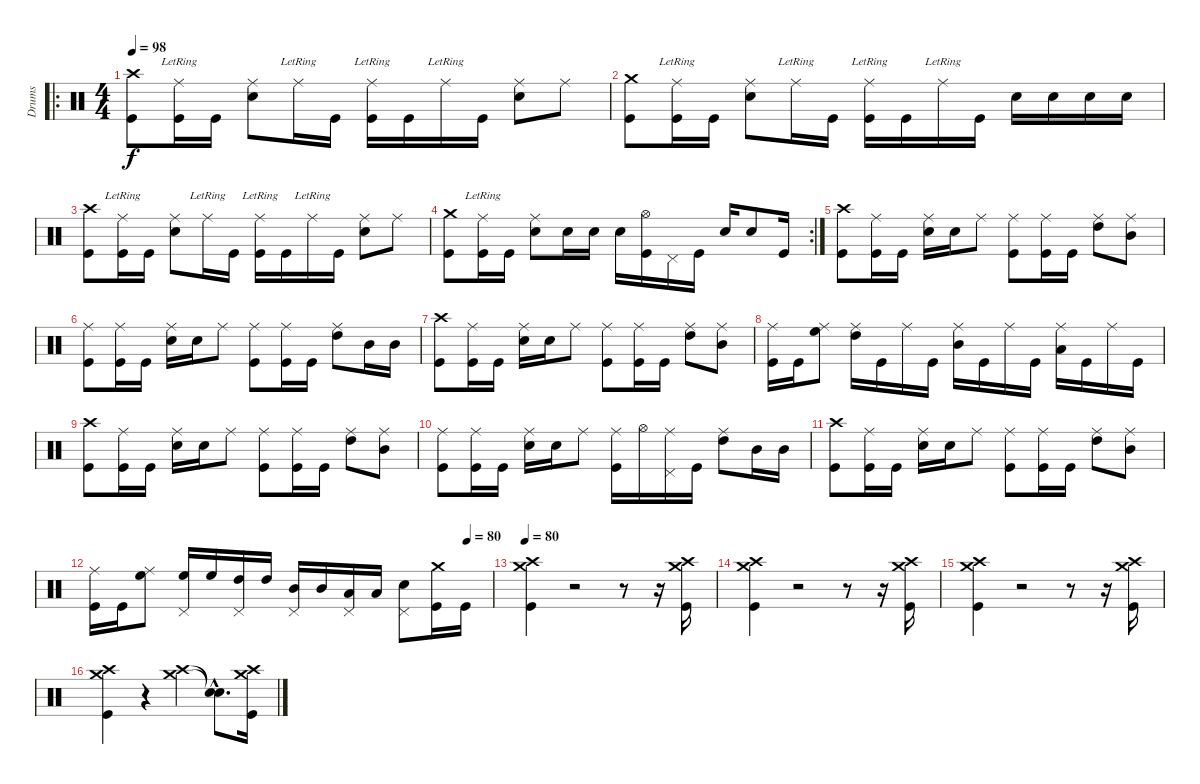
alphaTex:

\track ("Drums" "Drums") {instrument percussion}
\staff {score}
\articulation defaults
\ro
\ts (4 4)
\tempo 98
\clef neutral
\ks c
("Crash high (hit)" "Kick (hit)").8{dy f} ("Ride (middle)"{lr} "Kick (hit)").16 "Kick (hit)".16 ("Ride (middle)" "Electric Snare (hit)").8 "Ride (middle)"{lr}.16 "Kick (hit)".16 ("Ride (middle)"{lr} "Kick (hit)").16 "Kick (hit)".16 "Ride (middle)"{lr}.16 "Kick (hit)".16 ("Ride (middle)" "Electric Snare (hit)").8 "Ride (middle)".8 |
("Crash medium (hit)" "Kick (hit)").8 ("Ride (middle)"{lr} "Kick (hit)").16 "Kick (hit)".16 ("Ride (middle)" "Electric Snare (hit)").8 "Ride (middle)"{lr}.16 "Kick (hit)".16 ("Ride (middle)"{lr} "Kick (hit)").16 "Kick (hit)".16 "Ride (middle)"{lr}.16 "Kick (hit)".16 "Electric Snare (hit)".16 "Electric Snare (hit)".16 "Electric Snare (hit)".16 "Electric Snare (hit)".16 |
("Crash high (hit)" "Kick (hit)").8 ("Ride (middle)"{lr} "Kick (hit)").16 "Kick (hit)".16 ("Ride (middle)" "Electric Snare (hit)").8 "Ride (middle)"{lr}.16 "Kick (hit)".16 ("Ride (middle)"{lr} "Kick (hit)").16 "Kick (hit)".16 "Ride (middle)"{lr}.16 "Kick (hit)".16 ("Ride (middle)" "Electric Snare (hit)").8 "Ride (middle)".8 |
\rc 2
("Crash medium (hit)" "Kick (hit)").8 ("Ride (middle)"{lr} "Kick (hit)").16 "Kick (hit)".16 ("Ride (middle)" "Electric Snare (hit)").8 "Electric Snare (hit)".16 "Electric Snare (hit)".16 "Electric Snare (hit)".16 ("Hi-Hat (open)" "Kick (hit)").16 "Pedal Hi-Hat (hit)".16 "Kick (hit)".16 "Electric Snare (hit)".16 "Electric Snare (hit)".8 "Kick (hit)".16 |
("Crash high (hit)" "Kick (hit)").8 ("Ride (middle)" "Kick (hit)").16 "Kick (hit)".16 ("Ride (middle)" "Electric Snare (hit)").16 "Electric Snare (hit)".16 "Ride (middle)".8 ("Ride (middle)" "Kick (hit)").8 ("Ride (middle)" "Kick (hit)").16 "Kick (hit)".16 ("Ride (middle)" "High Tom (hit)").8 ("Ride (middle)" "Mid Tom (hit)").8 |
("Ride (middle)" "Kick (hit)").8 ("Ride (middle)" "Kick (hit)").16 "Kick (hit)".16 ("Ride (middle)" "Electric Snare (hit)").16 "Electric Snare (hit)".16 "Ride (middle)".8 ("Ride (middle)" "Kick (hit)").8 ("Ride (middle)" "Kick (hit)").16 "Kick (hit)".16 ("Ride (middle)" "High Tom (hit)").8 "Mid Tom (hit)".16 "Mid Tom (hit)".16 |
("Crash high (hit)" "Kick (hit)").8 ("Ride (middle)" "Kick (hit)").16 "Kick (hit)".16 ("Ride (middle)" "Electric Snare (hit)").16 "Electric Snare (hit)".16 "Ride (middle)".8 ("Ride (middle)" "Kick (hit)").8 ("Ride (middle)" "Kick (hit)").16 "Kick (hit)".16 ("Ride (middle)" "High Tom (hit)").8 ("Ride (middle)" "Mid Tom (hit)").8 |
("Ride (middle)" "Kick (hit)").16 "Kick (hit)".16 ("Ride (middle)" "High Floor Tom (hit)").8 ("Ride (middle)" "High Tom (hit)").16 "Kick (hit)".16 "Ride (middle)".16 "Kick (hit)".16 ("Ride (middle)" "Mid Tom (hit)").16 "Kick (hit)".16 "Ride (middle)".16 "Kick (hit)".16 ("Ride (middle)" "Low Tom (hit)").16 "Kick (hit)".16 "Ride (middle)".16 "Kick (hit)".16 |
("Crash high (hit)" "Kick (hit)").8 ("Ride (middle)" "Kick (hit)").16 "Kick (hit)".16 ("Ride (middle)" "Electric Snare (hit)").16 "Electric Snare (hit)".16 "Ride (middle)".8 ("Ride (middle)" "Kick (hit)").8 ("Ride (middle)" "Kick (hit)").16 "Kick (hit)".16 ("Ride (middle)" "High Tom (hit)").8 ("Ride (middle)" "Mid Tom (hit)").8 |
("Ride (middle)" "Kick (hit)").8 ("Ride (middle)" "Kick (hit)").16 "Kick (hit)".16 ("Ride (middle)" "Electric Snare (hit)").16 "Electric Snare (hit)".16 "Ride (middle)".8 ("Ride (middle)" "Kick (hit)").16 "Hi-Hat (open)".16 ("Ride (middle)" "Pedal Hi-Hat (hit)").16 "Kick (hit)".16 ("Ride (middle)" "High Tom (hit)").8 "Mid Tom (hit)".16 "Mid Tom (hit)".16 |
("Crash high (hit)" "Kick (hit)").8 ("Ride (middle)" "Kick (hit)").16 "Kick (hit)".16 ("Ride (middle)" "Electric Snare (hit)").16 "Electric Snare (hit)".16 "Ride (middle)".8 ("Ride (middle)" "Kick (hit)").8 ("Ride (middle)" "Kick (hit)").16 "Kick (hit)".16 ("Ride (middle)" "High Tom (hit)").8 ("Ride (middle)" "Mid Tom (hit)").8 |
\tempo (80 0.9375)
("Ride (middle)" "Kick (hit)").16 "Kick (hit)".16 ("Ride (middle)" "High Floor Tom (hit)").8 ("High Floor Tom (hit)" "Pedal Hi-Hat (hit)").16 "High Floor Tom (hit)".16 ("High Tom (hit)" "Pedal Hi-Hat (hit)").16 "High Tom (hit)".16 ("Mid Tom (hit)" "Pedal Hi-Hat (hit)").16 "Mid Tom (hit)".16 ("Low Tom (hit)" "Pedal Hi-Hat (hit)").16 "Low Tom (hit)".16 ("Electric Snare (hit)" "Pedal Hi-Hat (hit)").8 ("Crash medium (hit)" "Kick (hit)").16 "Kick (hit)".16 |
\tempo 80
("Crash high (hit)" "Crash medium (hit)" "Kick (hit)").4 r.2 r.8 r.16 ("Crash high (hit)" "Crash medium (hit)" "Kick (hit)").16 |
("Crash high (hit)" "Crash medium (hit)" "Kick (hit)").4 r.2 r.8 r.16 ("Crash high (hit)" "Crash medium (hit)" "Kick (hit)").16 |
("Crash high (hit)" "Crash medium (hit)" "Kick (hit)").4 r.2 r.8 r.16 ("Crash high (hit)" "Crash medium (hit)" "Kick (hit)").16 |
("Crash high (hit)" "Crash medium (hit)" "Kick (hit)").4 r.4{volume 0} ("Crash high (hit)" "Crash medium (hit)").4{volume 14} ("Snare (hit)"{hac t} "Snare (hit)"{hac t}).8{d} ("Crash high (hit)" "Crash medium (hit)" "Kick (hit)").16
